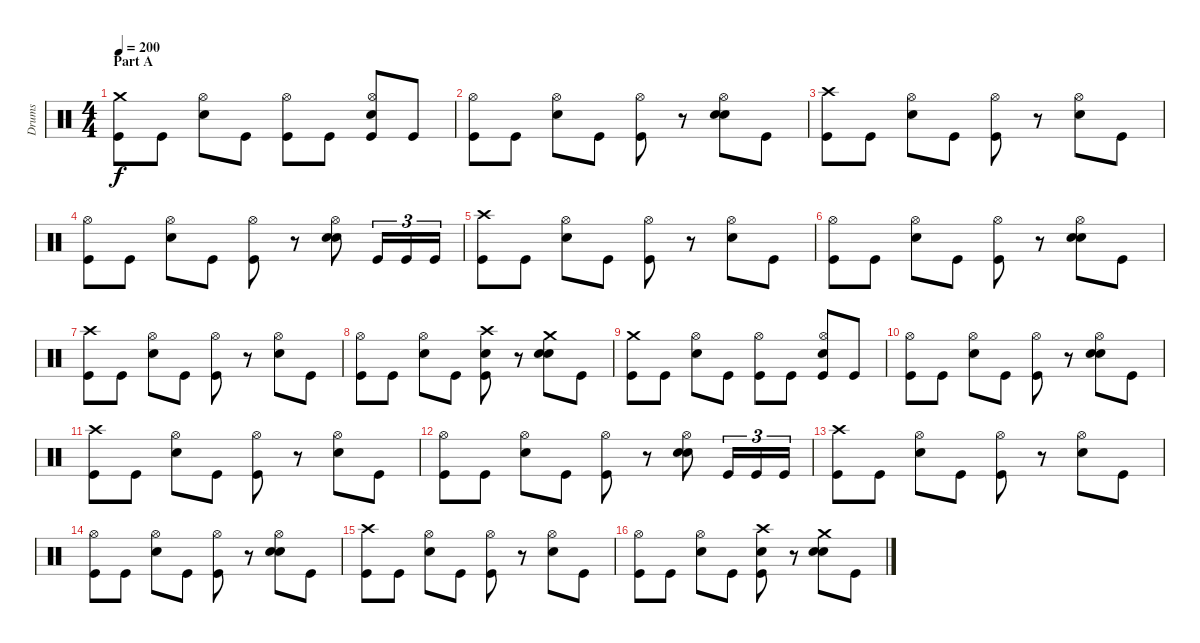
\track ("Drums" "Drums") {instrument percussion}
\staff {score}
\articulation defaults
\ts (4 4)
\section ("" "Part A")
\tempo 200
\clef neutral
\ks c
("Crash medium (hit)" "Kick (hit)").8{dy f} "Kick (hit)".8 ("Hi-Hat (open)" "Snare (hit) 2").8 "Kick (hit)".8 ("Hi-Hat (open)" "Kick (hit)").8 "Kick (hit)".8 ("Hi-Hat (open)" "Snare (hit) 2" "Kick (hit)").8 "Kick (hit)".8 |
("Hi-Hat (open)" "Kick (hit)").8 "Kick (hit)".8 ("Hi-Hat (open)" "Snare (hit) 2").8 "Kick (hit)".8 ("Hi-Hat (open)" "Kick (hit)").8 r.8 ("Hi-Hat (open)" "Hand Clap (hit)" "Snare (hit) 2").8 "Kick (hit)".8 |
("Crash high (hit)" "Kick (hit)").8 "Kick (hit)".8 ("Hi-Hat (open)" "Snare (hit) 2").8 "Kick (hit)".8 ("Hi-Hat (open)" "Kick (hit)").8 r.8 ("Hi-Hat (open)" "Snare (hit) 2").8 "Kick (hit)".8 |
("Hi-Hat (open)" "Kick (hit)").8 "Kick (hit)".8 ("Hi-Hat (open)" "Snare (hit) 2").8 "Kick (hit)".8 ("Hi-Hat (open)" "Kick (hit)").8 r.8 ("Hi-Hat (open)" "Hand Clap (hit)" "Snare (hit) 2").8 "Kick (hit)".16{tu (3 2)} "Kick (hit)".16{tu (3 2)} "Kick (hit)".16{tu (3 2)} |
("Crash high (hit)" "Kick (hit)").8 "Kick (hit)".8 ("Hi-Hat (open)" "Snare (hit) 2").8 "Kick (hit)".8 ("Hi-Hat (open)" "Kick (hit)").8 r.8 ("Hi-Hat (open)" "Snare (hit) 2").8 "Kick (hit)".8 |
("Hi-Hat (open)" "Kick (hit)").8 "Kick (hit)".8 ("Hi-Hat (open)" "Snare (hit) 2").8 "Kick (hit)".8 ("Hi-Hat (open)" "Kick (hit)").8 r.8 ("Hi-Hat (open)" "Hand Clap (hit)" "Snare (hit) 2").8 "Kick (hit)".8 |
("Crash high (hit)" "Kick (hit)").8 "Kick (hit)".8 ("Hi-Hat (open)" "Snare (hit) 2").8 "Kick (hit)".8 ("Hi-Hat (open)" "Kick (hit)").8 r.8 ("Hi-Hat (open)" "Snare (hit) 2").8 "Kick (hit)".8 |
("Hi-Hat (open)" "Kick (hit)").8 "Kick (hit)".8 ("Hi-Hat (open)" "Snare (hit) 2").8 "Kick (hit)".8 ("Crash high (hit)" "Hand Clap (hit)" "Kick (hit)").8 r.8 ("Crash medium (hit)" "Hand Clap (hit)" "Snare (hit) 2").8 "Kick (hit)".8 |
("Crash medium (hit)" "Kick (hit)").8 "Kick (hit)".8 ("Hi-Hat (open)" "Snare (hit) 2").8 "Kick (hit)".8 ("Hi-Hat (open)" "Kick (hit)").8 "Kick (hit)".8 ("Hi-Hat (open)" "Snare (hit) 2" "Kick (hit)").8 "Kick (hit)".8 |
("Hi-Hat (open)" "Kick (hit)").8 "Kick (hit)".8 ("Hi-Hat (open)" "Snare (hit) 2").8 "Kick (hit)".8 ("Hi-Hat (open)" "Kick (hit)").8 r.8 ("Hi-Hat (open)" "Hand Clap (hit)" "Snare (hit) 2").8 "Kick (hit)".8 |
("Crash high (hit)" "Kick (hit)").8 "Kick (hit)".8 ("Hi-Hat (open)" "Snare (hit) 2").8 "Kick (hit)".8 ("Hi-Hat (open)" "Kick (hit)").8 r.8 ("Hi-Hat (open)" "Snare (hit) 2").8 "Kick (hit)".8 |
("Hi-Hat (open)" "Kick (hit)").8 "Kick (hit)".8 ("Hi-Hat (open)" "Snare (hit) 2").8 "Kick (hit)".8 ("Hi-Hat (open)" "Kick (hit)").8 r.8 ("Hi-Hat (open)" "Hand Clap (hit)" "Snare (hit) 2").8 "Kick (hit)".16{tu (3 2)} "Kick (hit)".16{tu (3 2)} "Kick (hit)".16{tu (3 2)} |
("Crash high (hit)" "Kick (hit)").8 "Kick (hit)".8 ("Hi-Hat (open)" "Snare (hit) 2").8 "Kick (hit)".8 ("Hi-Hat (open)" "Kick (hit)").8 r.8 ("Hi-Hat (open)" "Snare (hit) 2").8 "Kick (hit)".8 |
("Hi-Hat (open)" "Kick (hit)").8 "Kick (hit)".8 ("Hi-Hat (open)" "Snare (hit) 2").8 "Kick (hit)".8 ("Hi-Hat (open)" "Kick (hit)").8 r.8 ("Hi-Hat (open)" "Hand Clap (hit)" "Snare (hit) 2").8 "Kick (hit)".8 |
("Crash high (hit)" "Kick (hit)").8 "Kick (hit)".8 ("Hi-Hat (open)" "Snare (hit) 2").8 "Kick (hit)".8 ("Hi-Hat (open)" "Kick (hit)").8 r.8 ("Hi-Hat (open)" "Snare (hit) 2").8 "Kick (hit)".8 |
("Hi-Hat (open)" "Kick (hit)").8 "Kick (hit)".8 ("Hi-Hat (open)" "Snare (hit) 2").8 "Kick (hit)".8 ("Crash high (hit)" "Hand Clap (hit)" "Kick (hit)").8 r.8 ("Crash medium (hit)" "Hand Clap (hit)" "Snare (hit) 2").8 "Kick (hit)".8
